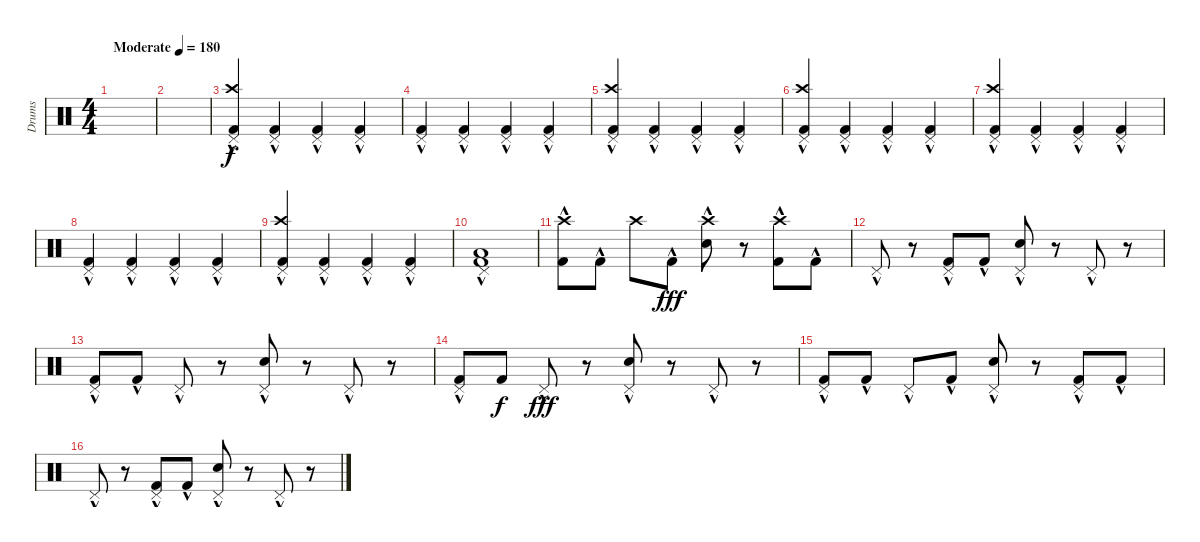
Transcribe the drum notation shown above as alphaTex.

\track ("Drums" "Drums") {instrument percussion}
\staff {score}
\articulation defaults
\ts (4 4)
\tempo (180 "Moderate")
\clef neutral
\ks c
|
|
("Pedal Hi-Hat (hit)"{hac} "Crash high (hit)"{hac} "Kick (hit) 2"{hac}).4 ("Pedal Hi-Hat (hit)"{hac} "Kick (hit) 2"{hac}).4 ("Pedal Hi-Hat (hit)"{hac} "Kick (hit) 2"{hac}).4 ("Pedal Hi-Hat (hit)"{hac} "Kick (hit) 2"{hac}).4 |
("Pedal Hi-Hat (hit)"{hac} "Kick (hit) 2"{hac}).4 ("Pedal Hi-Hat (hit)"{hac} "Kick (hit) 2"{hac}).4 ("Pedal Hi-Hat (hit)"{hac} "Kick (hit) 2"{hac}).4 ("Pedal Hi-Hat (hit)"{hac} "Kick (hit) 2"{hac}).4 |
("Pedal Hi-Hat (hit)"{hac} "Crash high (hit)" "Kick (hit) 2"{hac}).4 ("Pedal Hi-Hat (hit)"{hac} "Kick (hit) 2"{hac}).4 ("Pedal Hi-Hat (hit)"{hac} "Kick (hit) 2"{hac}).4 ("Pedal Hi-Hat (hit)"{hac} "Kick (hit) 2"{hac}).4 |
("Pedal Hi-Hat (hit)"{hac} "Crash high (hit)" "Kick (hit) 2"{hac}).4 ("Pedal Hi-Hat (hit)"{hac} "Kick (hit) 2"{hac}).4 ("Pedal Hi-Hat (hit)"{hac} "Kick (hit) 2"{hac}).4 ("Pedal Hi-Hat (hit)"{hac} "Kick (hit) 2"{hac}).4 |
("Pedal Hi-Hat (hit)"{hac} "Crash high (hit)" "Kick (hit) 2"{hac}).4 ("Pedal Hi-Hat (hit)"{hac} "Kick (hit) 2"{hac}).4 ("Pedal Hi-Hat (hit)"{hac} "Kick (hit) 2"{hac}).4 ("Pedal Hi-Hat (hit)"{hac} "Kick (hit) 2"{hac}).4 |
("Pedal Hi-Hat (hit)"{hac} "Kick (hit) 2"{hac}).4 ("Pedal Hi-Hat (hit)"{hac} "Kick (hit) 2"{hac}).4 ("Pedal Hi-Hat (hit)"{hac} "Kick (hit) 2"{hac}).4 ("Pedal Hi-Hat (hit)"{hac} "Kick (hit) 2"{hac}).4 |
("Pedal Hi-Hat (hit)"{hac} "Crash high (hit)" "Kick (hit) 2"{hac}).4 ("Pedal Hi-Hat (hit)"{hac} "Kick (hit) 2"{hac}).4 ("Pedal Hi-Hat (hit)"{hac} "Kick (hit) 2"{hac}).4 ("Pedal Hi-Hat (hit)"{hac} "Kick (hit) 2"{hac}).4 |
("Pedal Hi-Hat (hit)"{hac} "Low Tom (hit)" "Kick (hit) 2"{hac}).1 |
("Crash high (hit)"{hac} "Kick (hit) 2"{hac}).8 "Kick (hit) 2"{hac}.8 "Crash high (hit)".8{dy f} "Kick (hit) 2"{hac}.8{dy fff} ("Crash high (hit)" "Snare (hit) 2"{hac}).8 r.8 ("Crash high (hit)" "Kick (hit) 2"{hac}).8 "Kick (hit) 2"{hac}.8 |
"Pedal Hi-Hat (hit)"{hac}.8 r.8 ("Pedal Hi-Hat (hit)"{hac} "Kick (hit) 2"{hac}).8 "Kick (hit) 2"{hac}.8 ("Pedal Hi-Hat (hit)"{hac} "Snare (hit) 2"{hac}).8 r.8 "Pedal Hi-Hat (hit)"{hac}.8 r.8 |
("Pedal Hi-Hat (hit)"{hac} "Kick (hit) 2"{hac}).8 "Kick (hit) 2"{hac}.8 "Pedal Hi-Hat (hit)"{hac}.8 r.8 ("Pedal Hi-Hat (hit)"{hac} "Snare (hit) 2"{hac}).8 r.8 "Pedal Hi-Hat (hit)"{hac}.8 r.8 |
("Pedal Hi-Hat (hit)"{hac} "Kick (hit) 2").8 "Kick (hit) 2".8{dy f} "Pedal Hi-Hat (hit)"{hac}.8{dy fff} r.8 ("Pedal Hi-Hat (hit)"{hac} "Snare (hit) 2"{hac}).8 r.8 "Pedal Hi-Hat (hit)"{hac}.8 r.8 |
("Pedal Hi-Hat (hit)"{hac} "Kick (hit) 2"{hac}).8 "Kick (hit) 2"{hac}.8 "Pedal Hi-Hat (hit)"{hac}.8 "Kick (hit) 2"{hac}.8 ("Pedal Hi-Hat (hit)"{hac} "Snare (hit) 2"{hac}).8 r.8 ("Pedal Hi-Hat (hit)"{hac} "Kick (hit) 2"{hac}).8 "Kick (hit) 2"{hac}.8 |
"Pedal Hi-Hat (hit)"{hac}.8 r.8 ("Pedal Hi-Hat (hit)"{hac} "Kick (hit) 2"{hac}).8 "Kick (hit) 2"{hac}.8 ("Pedal Hi-Hat (hit)"{hac} "Snare (hit) 2"{hac}).8 r.8 "Pedal Hi-Hat (hit)"{hac}.8 r.8
